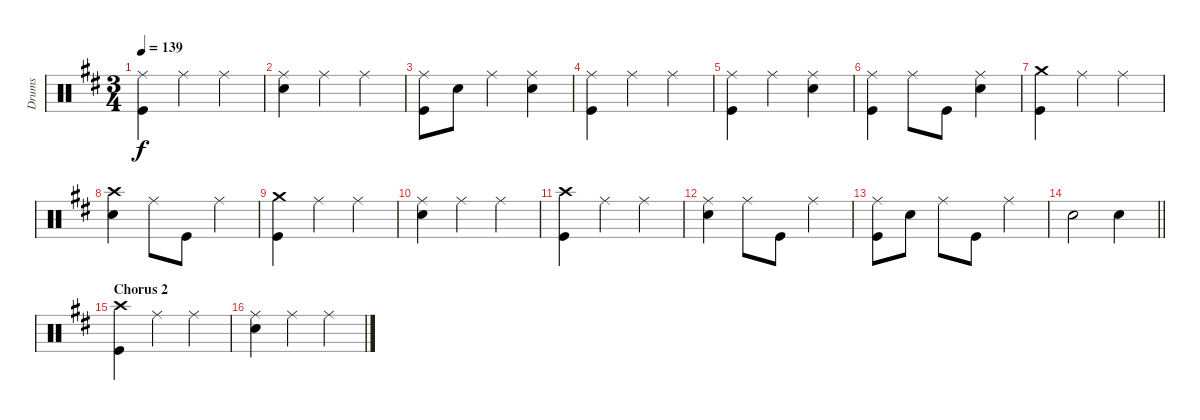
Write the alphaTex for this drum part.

\track ("Drums" "Drums") {instrument percussion}
\staff {score}
\articulation defaults
\ts (3 4)
\tempo 139
\clef neutral
\ks d
("Ride (middle)" "Kick (hit)").4{dy f} "Ride (middle)".4 "Ride (middle)".4 |
("Ride (middle)" "Snare (hit) 2").4 "Ride (middle)".4 "Ride (middle)".4 |
("Ride (middle)" "Kick (hit)").8 "Snare (hit) 2".8 "Ride (middle)".4 ("Ride (middle)" "Snare (hit) 2").4 |
("Ride (middle)" "Kick (hit)").4 "Ride (middle)".4 "Ride (middle)".4 |
("Ride (middle)" "Kick (hit)").4 "Ride (middle)".4 ("Ride (middle)" "Snare (hit) 2").4 |
("Ride (middle)" "Kick (hit)").4 "Ride (middle)".8 "Kick (hit)".8 ("Ride (middle)" "Snare (hit) 2").4 |
("Crash medium (hit)" "Kick (hit)").4 "Ride (middle)".4 "Ride (middle)".4 |
("Crash high (hit)" "Snare (hit) 2").4 "Ride (middle)".8 "Kick (hit)".8 "Ride (middle)".4 |
("Crash medium (hit)" "Kick (hit)").4 "Ride (middle)".4 "Ride (middle)".4 |
("Ride (middle)" "Snare (hit) 2").4 "Ride (middle)".4 "Ride (middle)".4 |
("Crash high (hit)" "Kick (hit)").4 "Ride (middle)".4 "Ride (middle)".4 |
("Ride (middle)" "Snare (hit) 2").4 "Ride (middle)".8 "Kick (hit)".8 "Ride (middle)".4 |
("Ride (middle)" "Kick (hit)").8 "Snare (hit) 2".8 "Ride (middle)".8 "Kick (hit)".8 "Ride (middle)".4 |
\barLineRight lightlight "Snare (hit) 2".2 "Snare (hit) 2".4
|
\section ("" "Chorus 2")
("Crash high (hit)" "Kick (hit)").4 "Ride (middle)".4 "Ride (middle)".4 |
("Ride (middle)" "Snare (hit) 2").4 "Ride (middle)".4 "Ride (middle)".4
